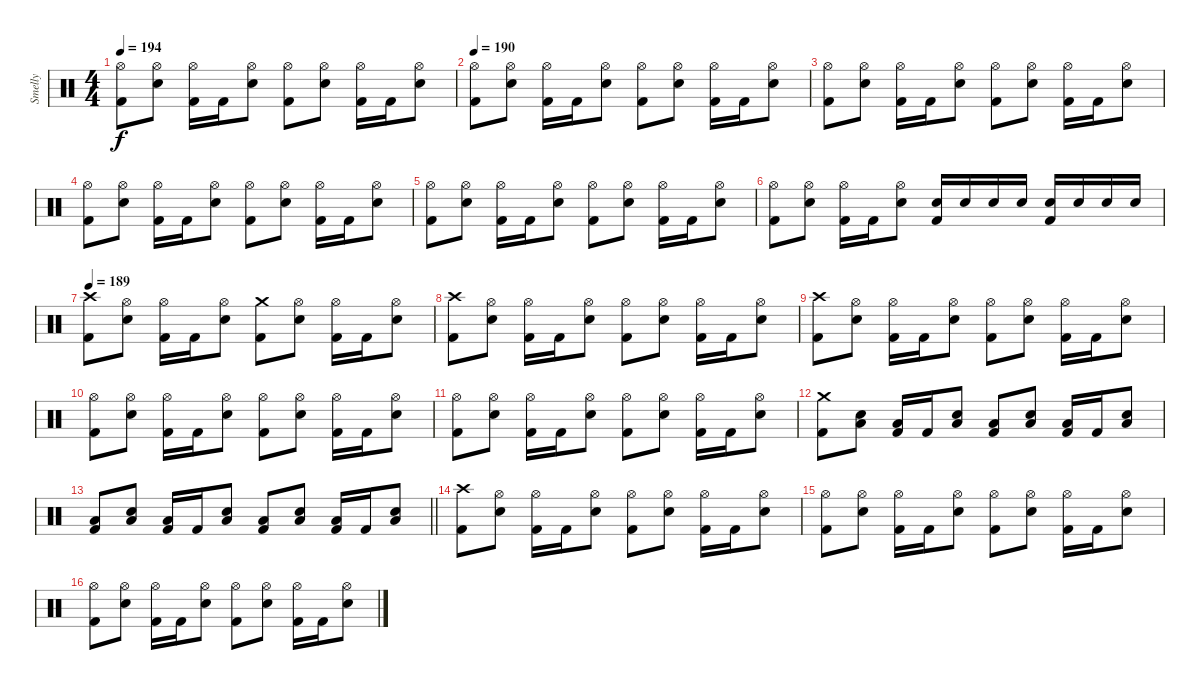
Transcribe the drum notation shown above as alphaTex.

\track ("Smelly" "Smelly") {instrument percussion}
\staff {score}
\articulation defaults
\ts (4 4)
\tempo 194
\clef neutral
\ks c
("Hi-Hat (open)" "Kick (hit) 2").8{dy f} ("Hi-Hat (open)" "Electric Snare (hit)").8 ("Hi-Hat (open)" "Kick (hit) 2").16 "Kick (hit) 2".16 ("Hi-Hat (open)" "Electric Snare (hit)").8 ("Hi-Hat (open)" "Kick (hit) 2").8 ("Hi-Hat (open)" "Electric Snare (hit)").8 ("Hi-Hat (open)" "Kick (hit) 2").16 "Kick (hit) 2".16 ("Hi-Hat (open)" "Electric Snare (hit)").8 |
\tempo 190
("Hi-Hat (open)" "Kick (hit) 2").8 ("Hi-Hat (open)" "Electric Snare (hit)").8 ("Hi-Hat (open)" "Kick (hit) 2").16 "Kick (hit) 2".16 ("Hi-Hat (open)" "Electric Snare (hit)").8 ("Hi-Hat (open)" "Kick (hit) 2").8 ("Hi-Hat (open)" "Electric Snare (hit)").8 ("Hi-Hat (open)" "Kick (hit) 2").16 "Kick (hit) 2".16 ("Hi-Hat (open)" "Electric Snare (hit)").8 |
("Hi-Hat (open)" "Kick (hit) 2").8 ("Hi-Hat (open)" "Electric Snare (hit)").8 ("Hi-Hat (open)" "Kick (hit) 2").16 "Kick (hit) 2".16 ("Hi-Hat (open)" "Electric Snare (hit)").8 ("Hi-Hat (open)" "Kick (hit) 2").8 ("Hi-Hat (open)" "Electric Snare (hit)").8 ("Hi-Hat (open)" "Kick (hit) 2").16 "Kick (hit) 2".16 ("Hi-Hat (open)" "Electric Snare (hit)").8 |
("Hi-Hat (open)" "Kick (hit) 2").8 ("Hi-Hat (open)" "Electric Snare (hit)").8 ("Hi-Hat (open)" "Kick (hit) 2").16 "Kick (hit) 2".16 ("Hi-Hat (open)" "Electric Snare (hit)").8 ("Hi-Hat (open)" "Kick (hit) 2").8 ("Hi-Hat (open)" "Electric Snare (hit)").8 ("Hi-Hat (open)" "Kick (hit) 2").16 "Kick (hit) 2".16 ("Hi-Hat (open)" "Electric Snare (hit)").8 |
("Hi-Hat (open)" "Kick (hit) 2").8 ("Hi-Hat (open)" "Electric Snare (hit)").8 ("Hi-Hat (open)" "Kick (hit) 2").16 "Kick (hit) 2".16 ("Hi-Hat (open)" "Electric Snare (hit)").8 ("Hi-Hat (open)" "Kick (hit) 2").8 ("Hi-Hat (open)" "Electric Snare (hit)").8 ("Hi-Hat (open)" "Kick (hit) 2").16 "Kick (hit) 2".16 ("Hi-Hat (open)" "Electric Snare (hit)").8 |
("Hi-Hat (open)" "Kick (hit) 2").8 ("Hi-Hat (open)" "Electric Snare (hit)").8 ("Hi-Hat (open)" "Kick (hit) 2").16 "Kick (hit) 2".16 ("Hi-Hat (open)" "Electric Snare (hit)").8 ("Electric Snare (hit)" "Kick (hit) 2").16 "Electric Snare (hit)".16 "Electric Snare (hit)".16 "Electric Snare (hit)".16 ("Electric Snare (hit)" "Kick (hit) 2").16 "Electric Snare (hit)".16 "Electric Snare (hit)".16 "Electric Snare (hit)".16 |
\tempo 189
("Crash high (hit)" "Kick (hit) 2").8 ("Hi-Hat (open)" "Electric Snare (hit)").8 ("Hi-Hat (open)" "Kick (hit) 2").16 "Kick (hit) 2".16 ("Hi-Hat (open)" "Electric Snare (hit)").8 ("Crash medium (hit)" "Kick (hit) 2").8 ("Hi-Hat (open)" "Electric Snare (hit)").8 ("Hi-Hat (open)" "Kick (hit) 2").16 "Kick (hit) 2".16 ("Hi-Hat (open)" "Electric Snare (hit)").8 |
("Crash high (hit)" "Kick (hit) 2").8 ("Hi-Hat (open)" "Electric Snare (hit)").8 ("Hi-Hat (open)" "Kick (hit) 2").16 "Kick (hit) 2".16 ("Hi-Hat (open)" "Electric Snare (hit)").8 ("Hi-Hat (open)" "Kick (hit) 2").8 ("Hi-Hat (open)" "Electric Snare (hit)").8 ("Hi-Hat (open)" "Kick (hit) 2").16 "Kick (hit) 2".16 ("Hi-Hat (open)" "Electric Snare (hit)").8 |
("Crash high (hit)" "Kick (hit) 2").8 ("Hi-Hat (open)" "Electric Snare (hit)").8 ("Hi-Hat (open)" "Kick (hit) 2").16 "Kick (hit) 2".16 ("Hi-Hat (open)" "Electric Snare (hit)").8 ("Hi-Hat (open)" "Kick (hit) 2").8 ("Hi-Hat (open)" "Electric Snare (hit)").8 ("Hi-Hat (open)" "Kick (hit) 2").16 "Kick (hit) 2".16 ("Hi-Hat (open)" "Electric Snare (hit)").8 |
("Hi-Hat (open)" "Kick (hit) 2").8 ("Hi-Hat (open)" "Electric Snare (hit)").8 ("Hi-Hat (open)" "Kick (hit) 2").16 "Kick (hit) 2".16 ("Hi-Hat (open)" "Electric Snare (hit)").8 ("Hi-Hat (open)" "Kick (hit) 2").8 ("Hi-Hat (open)" "Electric Snare (hit)").8 ("Hi-Hat (open)" "Kick (hit) 2").16 "Kick (hit) 2".16 ("Hi-Hat (open)" "Electric Snare (hit)").8 |
("Hi-Hat (open)" "Kick (hit) 2").8 ("Hi-Hat (open)" "Electric Snare (hit)").8 ("Hi-Hat (open)" "Kick (hit) 2").16 "Kick (hit) 2".16 ("Hi-Hat (open)" "Electric Snare (hit)").8 ("Hi-Hat (open)" "Kick (hit) 2").8 ("Hi-Hat (open)" "Electric Snare (hit)").8 ("Hi-Hat (open)" "Kick (hit) 2").16 "Kick (hit) 2".16 ("Hi-Hat (open)" "Electric Snare (hit)").8 |
("Crash medium (hit)" "Kick (hit) 2").8 ("Electric Snare (hit)" "Low Floor Tom (hit)").8 ("Low Floor Tom (hit)" "Kick (hit) 2").16 "Kick (hit) 2".16 ("Electric Snare (hit)" "Low Floor Tom (hit)").8 ("Low Floor Tom (hit)" "Kick (hit) 2").8 ("Electric Snare (hit)" "Low Floor Tom (hit)").8 ("Low Floor Tom (hit)" "Kick (hit) 2").16 "Kick (hit) 2".16 ("Electric Snare (hit)" "Low Floor Tom (hit)").8 |
\barLineRight lightlight
("Low Floor Tom (hit)" "Kick (hit) 2").8 ("Electric Snare (hit)" "Low Floor Tom (hit)").8 ("Low Floor Tom (hit)" "Kick (hit) 2").16 "Kick (hit) 2".16 ("Electric Snare (hit)" "Low Floor Tom (hit)").8 ("Low Floor Tom (hit)" "Kick (hit) 2").8 ("Electric Snare (hit)" "Low Floor Tom (hit)").8 ("Low Floor Tom (hit)" "Kick (hit) 2").16 "Kick (hit) 2".16 ("Electric Snare (hit)" "Low Floor Tom (hit)").8 |
\section ("" "")
("Crash high (hit)" "Kick (hit) 2").8 ("Hi-Hat (open)" "Electric Snare (hit)").8 ("Hi-Hat (open)" "Kick (hit) 2").16 "Kick (hit) 2".16 ("Hi-Hat (open)" "Electric Snare (hit)").8 ("Hi-Hat (open)" "Kick (hit) 2").8 ("Hi-Hat (open)" "Electric Snare (hit)").8 ("Hi-Hat (open)" "Kick (hit) 2").16 "Kick (hit) 2".16 ("Hi-Hat (open)" "Electric Snare (hit)").8 |
("Hi-Hat (open)" "Kick (hit) 2").8 ("Hi-Hat (open)" "Electric Snare (hit)").8 ("Hi-Hat (open)" "Kick (hit) 2").16 "Kick (hit) 2".16 ("Hi-Hat (open)" "Electric Snare (hit)").8 ("Hi-Hat (open)" "Kick (hit) 2").8 ("Hi-Hat (open)" "Electric Snare (hit)").8 ("Hi-Hat (open)" "Kick (hit) 2").16 "Kick (hit) 2".16 ("Hi-Hat (open)" "Electric Snare (hit)").8 |
("Hi-Hat (open)" "Kick (hit) 2").8 ("Hi-Hat (open)" "Electric Snare (hit)").8 ("Hi-Hat (open)" "Kick (hit) 2").16 "Kick (hit) 2".16 ("Hi-Hat (open)" "Electric Snare (hit)").8 ("Hi-Hat (open)" "Kick (hit) 2").8 ("Hi-Hat (open)" "Electric Snare (hit)").8 ("Hi-Hat (open)" "Kick (hit) 2").16 "Kick (hit) 2".16 ("Hi-Hat (open)" "Electric Snare (hit)").8
